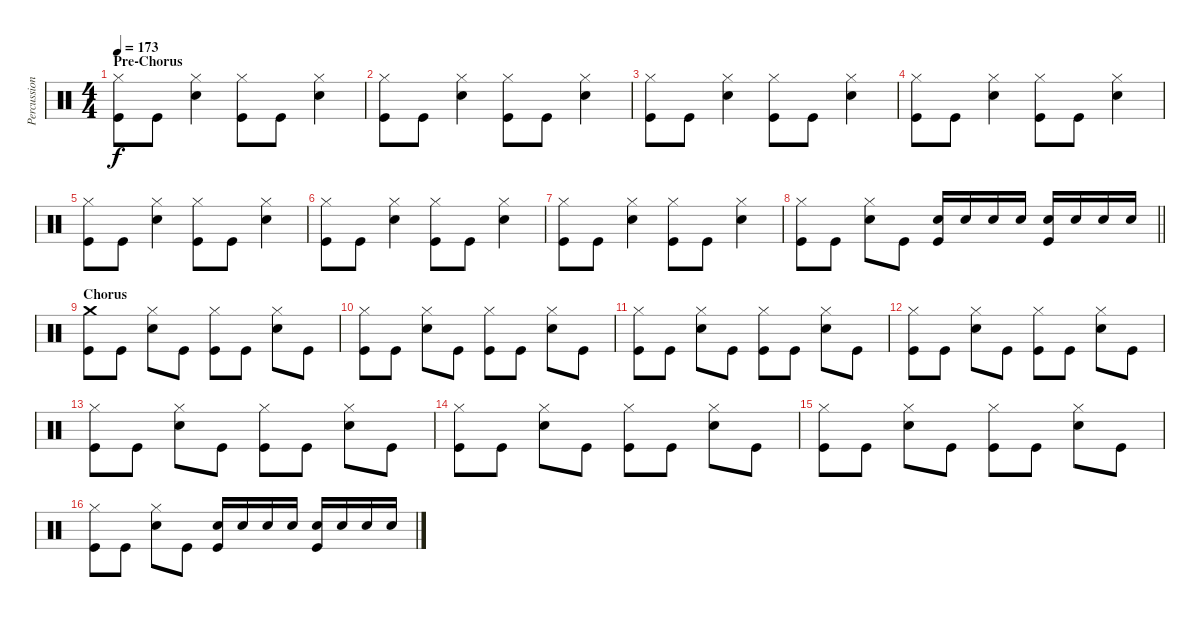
\track ("Percussion" "Percussion") {instrument percussion}
\staff {score}
\articulation defaults
\ts (4 4)
\section ("" "Pre-Chorus")
\tempo 173
\clef neutral
\ks c
("Hi-Hat (closed)" "Kick (hit)").8{dy f} "Kick (hit)".8 ("Hi-Hat (closed)" "Electric Snare (hit)").4 ("Hi-Hat (closed)" "Kick (hit)").8 "Kick (hit)".8 ("Hi-Hat (closed)" "Electric Snare (hit)").4 |
("Hi-Hat (closed)" "Kick (hit)").8 "Kick (hit)".8 ("Hi-Hat (closed)" "Electric Snare (hit)").4 ("Hi-Hat (closed)" "Kick (hit)").8 "Kick (hit)".8 ("Hi-Hat (closed)" "Electric Snare (hit)").4 |
("Hi-Hat (closed)" "Kick (hit)").8 "Kick (hit)".8 ("Hi-Hat (closed)" "Electric Snare (hit)").4 ("Hi-Hat (closed)" "Kick (hit)").8 "Kick (hit)".8 ("Hi-Hat (closed)" "Electric Snare (hit)").4 |
("Hi-Hat (closed)" "Kick (hit)").8 "Kick (hit)".8 ("Hi-Hat (closed)" "Electric Snare (hit)").4 ("Hi-Hat (closed)" "Kick (hit)").8 "Kick (hit)".8 ("Hi-Hat (closed)" "Electric Snare (hit)").4 |
("Hi-Hat (closed)" "Kick (hit)").8 "Kick (hit)".8 ("Hi-Hat (closed)" "Electric Snare (hit)").4 ("Hi-Hat (closed)" "Kick (hit)").8 "Kick (hit)".8 ("Hi-Hat (closed)" "Electric Snare (hit)").4 |
("Hi-Hat (closed)" "Kick (hit)").8 "Kick (hit)".8 ("Hi-Hat (closed)" "Electric Snare (hit)").4 ("Hi-Hat (closed)" "Kick (hit)").8 "Kick (hit)".8 ("Hi-Hat (closed)" "Electric Snare (hit)").4 |
("Hi-Hat (closed)" "Kick (hit)").8 "Kick (hit)".8 ("Hi-Hat (closed)" "Electric Snare (hit)").4 ("Hi-Hat (closed)" "Kick (hit)").8 "Kick (hit)".8 ("Hi-Hat (closed)" "Electric Snare (hit)").4 |
\barLineRight lightlight
("Hi-Hat (closed)" "Kick (hit)").8 "Kick (hit)".8 ("Hi-Hat (closed)" "Electric Snare (hit)").8 "Kick (hit)".8 ("Electric Snare (hit)" "Kick (hit)").16 "Electric Snare (hit)".16 "Electric Snare (hit)".16 "Electric Snare (hit)".16 ("Electric Snare (hit)" "Kick (hit)").16 "Electric Snare (hit)".16 "Electric Snare (hit)".16 "Electric Snare (hit)".16 |
\section ("" "Chorus")
("Crash medium (hit)" "Kick (hit)").8 "Kick (hit)".8 ("Hi-Hat (closed)" "Electric Snare (hit)").8 "Kick (hit)".8 ("Hi-Hat (closed)" "Kick (hit)").8 "Kick (hit)".8 ("Hi-Hat (closed)" "Electric Snare (hit)").8 "Kick (hit)".8 |
("Hi-Hat (closed)" "Kick (hit)").8 "Kick (hit)".8 ("Hi-Hat (closed)" "Electric Snare (hit)").8 "Kick (hit)".8 ("Hi-Hat (closed)" "Kick (hit)").8 "Kick (hit)".8 ("Hi-Hat (closed)" "Electric Snare (hit)").8 "Kick (hit)".8 |
("Hi-Hat (closed)" "Kick (hit)").8 "Kick (hit)".8 ("Hi-Hat (closed)" "Electric Snare (hit)").8 "Kick (hit)".8 ("Hi-Hat (closed)" "Kick (hit)").8 "Kick (hit)".8 ("Hi-Hat (closed)" "Electric Snare (hit)").8 "Kick (hit)".8 |
("Hi-Hat (closed)" "Kick (hit)").8 "Kick (hit)".8 ("Hi-Hat (closed)" "Electric Snare (hit)").8 "Kick (hit)".8 ("Hi-Hat (closed)" "Kick (hit)").8 "Kick (hit)".8 ("Hi-Hat (closed)" "Electric Snare (hit)").8 "Kick (hit)".8 |
("Hi-Hat (closed)" "Kick (hit)").8 "Kick (hit)".8 ("Hi-Hat (closed)" "Electric Snare (hit)").8 "Kick (hit)".8 ("Hi-Hat (closed)" "Kick (hit)").8 "Kick (hit)".8 ("Hi-Hat (closed)" "Electric Snare (hit)").8 "Kick (hit)".8 |
("Hi-Hat (closed)" "Kick (hit)").8 "Kick (hit)".8 ("Hi-Hat (closed)" "Electric Snare (hit)").8 "Kick (hit)".8 ("Hi-Hat (closed)" "Kick (hit)").8 "Kick (hit)".8 ("Hi-Hat (closed)" "Electric Snare (hit)").8 "Kick (hit)".8 |
("Hi-Hat (closed)" "Kick (hit)").8 "Kick (hit)".8 ("Hi-Hat (closed)" "Electric Snare (hit)").8 "Kick (hit)".8 ("Hi-Hat (closed)" "Kick (hit)").8 "Kick (hit)".8 ("Hi-Hat (closed)" "Electric Snare (hit)").8 "Kick (hit)".8 |
("Hi-Hat (closed)" "Kick (hit)").8 "Kick (hit)".8 ("Hi-Hat (closed)" "Electric Snare (hit)").8 "Kick (hit)".8 ("Electric Snare (hit)" "Kick (hit)").16 "Electric Snare (hit)".16 "Electric Snare (hit)".16 "Electric Snare (hit)".16 ("Electric Snare (hit)" "Kick (hit)").16 "Electric Snare (hit)".16 "Electric Snare (hit)".16 "Electric Snare (hit)".16
